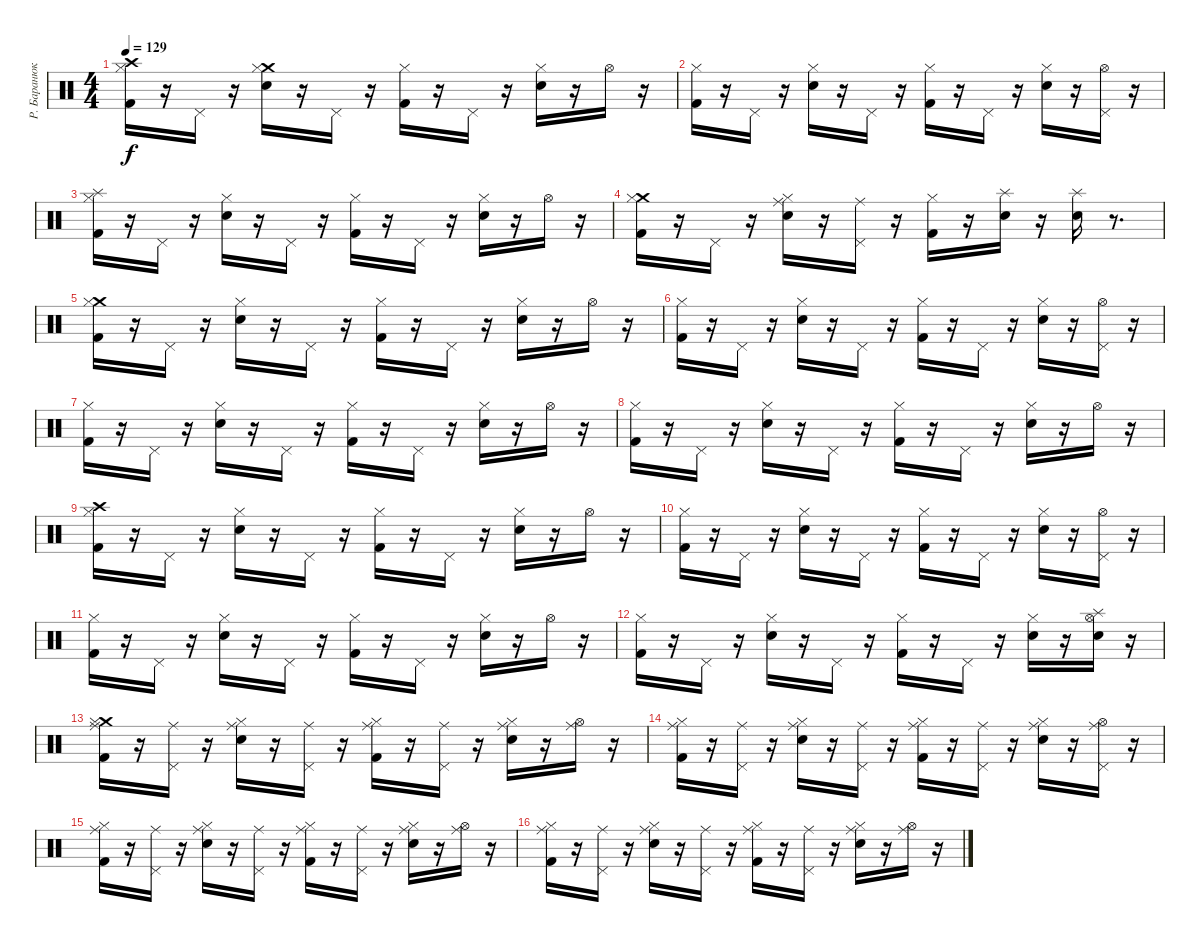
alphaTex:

\track ("Р. Баранюк" "Р. Баранюк") {instrument percussion}
\staff {score}
\articulation defaults
\ts (4 4)
\tempo 129
\clef neutral
\ks c
("Crash high (hit)" "Hi-Hat (closed)" "Kick (hit) 2").16{dy f} r.16 "Pedal Hi-Hat (hit)".16 r.16 ("Crash medium (hit)" "Hi-Hat (closed)" "Electric Snare (hit)").16 r.16 "Pedal Hi-Hat (hit)".16 r.16 ("Hi-Hat (closed)" "Kick (hit) 2").16 r.16 "Pedal Hi-Hat (hit)".16 r.16 ("Hi-Hat (closed)" "Electric Snare (hit)").16 r.16 "Hi-Hat (open)".16 r.16 |
("Hi-Hat (closed)" "Kick (hit) 2").16 r.16 "Pedal Hi-Hat (hit)".16 r.16 ("Hi-Hat (closed)" "Electric Snare (hit)").16 r.16 "Pedal Hi-Hat (hit)".16 r.16 ("Hi-Hat (closed)" "Kick (hit) 2").16 r.16 "Pedal Hi-Hat (hit)".16 r.16 ("Hi-Hat (closed)" "Electric Snare (hit)").16 r.16 ("Pedal Hi-Hat (hit)" "Hi-Hat (open)").16 r.16 |
("Splash (hit)" "Hi-Hat (closed)" "Kick (hit) 2").16 r.16 "Pedal Hi-Hat (hit)".16 r.16 ("Hi-Hat (closed)" "Electric Snare (hit)").16 r.16 "Pedal Hi-Hat (hit)".16 r.16 ("Hi-Hat (closed)" "Kick (hit) 2").16 r.16 "Pedal Hi-Hat (hit)".16 r.16 ("Hi-Hat (closed)" "Electric Snare (hit)").16 r.16 "Hi-Hat (open)".16 r.16 |
("Crash medium (hit)" "Hi-Hat (closed)" "Kick (hit) 2").16 r.16 "Pedal Hi-Hat (hit)".16 r.16 ("Ride (middle)" "Hi-Hat (closed)" "Electric Snare (hit)").16 r.16 ("Ride (middle)" "Pedal Hi-Hat (hit)").16 r.16 ("Kick (hit) 2" "Hi-Hat (closed)").16 r.16 ("Splash (hit)" "Electric Snare (hit)").16 r.16 ("Splash (hit)" "Electric Snare (hit)").16 r.8{d} |
("Crash medium (hit)" "Hi-Hat (closed)" "Kick (hit) 2").16 r.16 "Pedal Hi-Hat (hit)".16 r.16 ("Hi-Hat (closed)" "Electric Snare (hit)").16 r.16 "Pedal Hi-Hat (hit)".16 r.16 ("Hi-Hat (closed)" "Kick (hit) 2").16 r.16 "Pedal Hi-Hat (hit)".16 r.16 ("Hi-Hat (closed)" "Electric Snare (hit)").16 r.16 "Hi-Hat (open)".16 r.16 |
("Hi-Hat (closed)" "Kick (hit) 2").16 r.16 "Pedal Hi-Hat (hit)".16 r.16 ("Hi-Hat (closed)" "Electric Snare (hit)").16 r.16 "Pedal Hi-Hat (hit)".16 r.16 ("Hi-Hat (closed)" "Kick (hit) 2").16 r.16 "Pedal Hi-Hat (hit)".16 r.16 ("Hi-Hat (closed)" "Electric Snare (hit)").16 r.16 ("Pedal Hi-Hat (hit)" "Hi-Hat (open)").16 r.16 |
("Hi-Hat (closed)" "Kick (hit) 2").16 r.16 "Pedal Hi-Hat (hit)".16 r.16 ("Hi-Hat (closed)" "Electric Snare (hit)").16 r.16 "Pedal Hi-Hat (hit)".16 r.16 ("Hi-Hat (closed)" "Kick (hit) 2").16 r.16 "Pedal Hi-Hat (hit)".16 r.16 ("Hi-Hat (closed)" "Electric Snare (hit)").16 r.16 "Hi-Hat (open)".16 r.16 |
("Hi-Hat (closed)" "Kick (hit) 2").16 r.16 "Pedal Hi-Hat (hit)".16 r.16 ("Hi-Hat (closed)" "Electric Snare (hit)").16 r.16 "Pedal Hi-Hat (hit)".16 r.16 ("Hi-Hat (closed)" "Kick (hit) 2").16 r.16 "Pedal Hi-Hat (hit)".16 r.16 ("Hi-Hat (closed)" "Electric Snare (hit)").16 r.16 "Hi-Hat (open)".16 r.16 |
("Crash high (hit)" "Hi-Hat (closed)" "Kick (hit) 2").16 r.16 "Pedal Hi-Hat (hit)".16 r.16 ("Hi-Hat (closed)" "Electric Snare (hit)").16 r.16 "Pedal Hi-Hat (hit)".16 r.16 ("Hi-Hat (closed)" "Kick (hit) 2").16 r.16 "Pedal Hi-Hat (hit)".16 r.16 ("Hi-Hat (closed)" "Electric Snare (hit)").16 r.16 "Hi-Hat (open)".16 r.16 |
("Hi-Hat (closed)" "Kick (hit) 2").16 r.16 "Pedal Hi-Hat (hit)".16 r.16 ("Hi-Hat (closed)" "Electric Snare (hit)").16 r.16 "Pedal Hi-Hat (hit)".16 r.16 ("Hi-Hat (closed)" "Kick (hit) 2").16 r.16 "Pedal Hi-Hat (hit)".16 r.16 ("Hi-Hat (closed)" "Electric Snare (hit)").16 r.16 ("Pedal Hi-Hat (hit)" "Hi-Hat (open)").16 r.16 |
("Hi-Hat (closed)" "Kick (hit) 2").16 r.16 "Pedal Hi-Hat (hit)".16 r.16 ("Hi-Hat (closed)" "Electric Snare (hit)").16 r.16 "Pedal Hi-Hat (hit)".16 r.16 ("Hi-Hat (closed)" "Kick (hit) 2").16 r.16 "Pedal Hi-Hat (hit)".16 r.16 ("Hi-Hat (closed)" "Electric Snare (hit)").16 r.16 "Hi-Hat (open)".16 r.16 |
("Hi-Hat (closed)" "Kick (hit) 2").16 r.16 "Pedal Hi-Hat (hit)".16 r.16 ("Hi-Hat (closed)" "Electric Snare (hit)").16 r.16 "Pedal Hi-Hat (hit)".16 r.16 ("Hi-Hat (closed)" "Kick (hit) 2").16 r.16 "Pedal Hi-Hat (hit)".16 r.16 ("Hi-Hat (closed)" "Electric Snare (hit)").16 r.16 ("Splash (hit)" "Electric Snare (hit)" "Hi-Hat (open)").16 r.16 |
("Ride (middle)" "Crash medium (hit)" "Hi-Hat (closed)" "Kick (hit) 2").16 r.16 ("Ride (middle)" "Pedal Hi-Hat (hit)").16 r.16 ("Ride (middle)" "Hi-Hat (closed)" "Electric Snare (hit)").16 r.16 ("Ride (middle)" "Pedal Hi-Hat (hit)").16 r.16 ("Ride (middle)" "Hi-Hat (closed)" "Kick (hit) 2").16 r.16 ("Ride (middle)" "Pedal Hi-Hat (hit)").16 r.16 ("Ride (middle)" "Electric Snare (hit)" "Hi-Hat (closed)").16 r.16 ("Ride (middle)" "Hi-Hat (open)").16 r.16 |
("Ride (middle)" "Hi-Hat (closed)" "Kick (hit) 2").16 r.16 ("Ride (middle)" "Pedal Hi-Hat (hit)").16 r.16 ("Ride (middle)" "Hi-Hat (closed)" "Electric Snare (hit)").16 r.16 ("Ride (middle)" "Pedal Hi-Hat (hit)").16 r.16 ("Ride (middle)" "Hi-Hat (closed)" "Kick (hit) 2").16 r.16 ("Ride (middle)" "Pedal Hi-Hat (hit)").16 r.16 ("Ride (middle)" "Hi-Hat (closed)" "Electric Snare (hit)").16 r.16 ("Ride (middle)" "Pedal Hi-Hat (hit)" "Hi-Hat (open)").16 r.16 |
("Ride (middle)" "Hi-Hat (closed)" "Kick (hit) 2").16 r.16 ("Ride (middle)" "Pedal Hi-Hat (hit)").16 r.16 ("Ride (middle)" "Hi-Hat (closed)" "Electric Snare (hit)").16 r.16 ("Ride (middle)" "Pedal Hi-Hat (hit)").16 r.16 ("Ride (middle)" "Hi-Hat (closed)" "Kick (hit) 2").16 r.16 ("Ride (middle)" "Pedal Hi-Hat (hit)").16 r.16 ("Ride (middle)" "Electric Snare (hit)" "Hi-Hat (closed)").16 r.16 ("Ride (middle)" "Hi-Hat (open)").16 r.16 |
("Ride (middle)" "Hi-Hat (closed)" "Kick (hit) 2").16 r.16 ("Ride (middle)" "Pedal Hi-Hat (hit)").16 r.16 ("Ride (middle)" "Hi-Hat (closed)" "Electric Snare (hit)").16 r.16 ("Ride (middle)" "Pedal Hi-Hat (hit)").16 r.16 ("Ride (middle)" "Hi-Hat (closed)" "Kick (hit) 2").16 r.16 ("Ride (middle)" "Pedal Hi-Hat (hit)").16 r.16 ("Ride (middle)" "Hi-Hat (closed)" "Electric Snare (hit)").16 r.16 ("Ride (middle)" "Hi-Hat (open)").16 r.16
